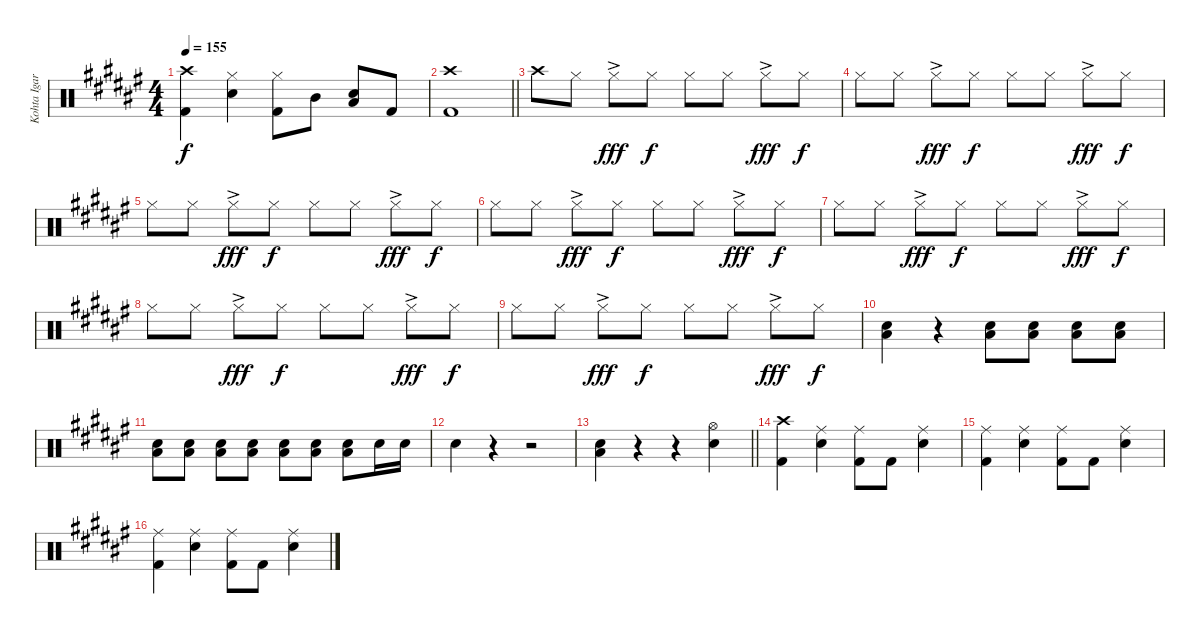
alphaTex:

\track ("Kohta Igarashi" "Kohta Igar") {instrument percussion}
\staff {score}
\articulation defaults
\ts (4 4)
\tempo 155
\clef neutral
\ks f#
("Crash high (hit)" "Kick (hit) 2").4{dy f} ("Hi-Hat (closed)" "Electric Snare (hit)").4 ("Hi-Hat (closed)" "Kick (hit) 2").8 "Mid Tom (hit)".8 ("Electric Snare (hit)" "Low Floor Tom (hit)").8 "Kick (hit) 2".8 |
\barLineRight lightlight
("Crash high (hit)" "Kick (hit) 2").1 |
"Crash high (hit)".8 "Hi-Hat (closed)".8 "Hi-Hat (closed)"{ac}.8{dy fff} "Hi-Hat (closed)".8{dy f} "Hi-Hat (closed)".8 "Hi-Hat (closed)".8 "Hi-Hat (closed)"{ac}.8{dy fff} "Hi-Hat (closed)".8{dy f} |
"Hi-Hat (closed)".8 "Hi-Hat (closed)".8 "Hi-Hat (closed)"{ac}.8{dy fff} "Hi-Hat (closed)".8{dy f} "Hi-Hat (closed)".8 "Hi-Hat (closed)".8 "Hi-Hat (closed)"{ac}.8{dy fff} "Hi-Hat (closed)".8{dy f} |
"Hi-Hat (closed)".8 "Hi-Hat (closed)".8 "Hi-Hat (closed)"{ac}.8{dy fff} "Hi-Hat (closed)".8{dy f} "Hi-Hat (closed)".8 "Hi-Hat (closed)".8 "Hi-Hat (closed)"{ac}.8{dy fff} "Hi-Hat (closed)".8{dy f} |
"Hi-Hat (closed)".8 "Hi-Hat (closed)".8 "Hi-Hat (closed)"{ac}.8{dy fff} "Hi-Hat (closed)".8{dy f} "Hi-Hat (closed)".8 "Hi-Hat (closed)".8 "Hi-Hat (closed)"{ac}.8{dy fff} "Hi-Hat (closed)".8{dy f} |
"Hi-Hat (closed)".8 "Hi-Hat (closed)".8 "Hi-Hat (closed)"{ac}.8{dy fff} "Hi-Hat (closed)".8{dy f} "Hi-Hat (closed)".8 "Hi-Hat (closed)".8 "Hi-Hat (closed)"{ac}.8{dy fff} "Hi-Hat (closed)".8{dy f} |
"Hi-Hat (closed)".8 "Hi-Hat (closed)".8 "Hi-Hat (closed)"{ac}.8{dy fff} "Hi-Hat (closed)".8{dy f} "Hi-Hat (closed)".8 "Hi-Hat (closed)".8 "Hi-Hat (closed)"{ac}.8{dy fff} "Hi-Hat (closed)".8{dy f} |
"Hi-Hat (closed)".8 "Hi-Hat (closed)".8 "Hi-Hat (closed)"{ac}.8{dy fff} "Hi-Hat (closed)".8{dy f} "Hi-Hat (closed)".8 "Hi-Hat (closed)".8 "Hi-Hat (closed)"{ac}.8{dy fff} "Hi-Hat (closed)".8{dy f} |
("Electric Snare (hit)" "Low Floor Tom (hit)").4 r.4 ("Electric Snare (hit)" "Low Floor Tom (hit)").8{volume 5} ("Electric Snare (hit)" "Low Floor Tom (hit)").8{volume 6} ("Electric Snare (hit)" "Low Floor Tom (hit)").8{volume 7} ("Electric Snare (hit)" "Low Floor Tom (hit)").8{volume 8} |
("Electric Snare (hit)" "Low Floor Tom (hit)").8{volume 9} ("Electric Snare (hit)" "Low Floor Tom (hit)").8{volume 10} ("Electric Snare (hit)" "Low Floor Tom (hit)").8{volume 11} ("Electric Snare (hit)" "Low Floor Tom (hit)").8{volume 12} ("Electric Snare (hit)" "Low Floor Tom (hit)").8 ("Electric Snare (hit)" "Low Floor Tom (hit)").8 ("Electric Snare (hit)" "Low Floor Tom (hit)").8 "Electric Snare (hit)".16 "Electric Snare (hit)".16 |
"Electric Snare (hit)".4 r.4 r.2 |
\barLineRight lightlight
("Electric Snare (hit)" "Low Floor Tom (hit)").4 r.4 r.4 ("Hi-Hat (open)" "Electric Snare (hit)").4 |
("Crash high (hit)" "Kick (hit) 2").4 ("Ride (middle)" "Electric Snare (hit)").4 ("Ride (middle)" "Kick (hit) 2").8 "Kick (hit) 2".8 ("Ride (middle)" "Electric Snare (hit)").4 |
("Ride (middle)" "Kick (hit) 2").4 ("Ride (middle)" "Electric Snare (hit)").4 ("Ride (middle)" "Kick (hit) 2").8 "Kick (hit) 2".8 ("Ride (middle)" "Electric Snare (hit)").4 |
("Ride (middle)" "Kick (hit) 2").4 ("Ride (middle)" "Electric Snare (hit)").4 ("Ride (middle)" "Kick (hit) 2").8 "Kick (hit) 2".8 ("Ride (middle)" "Electric Snare (hit)").4
